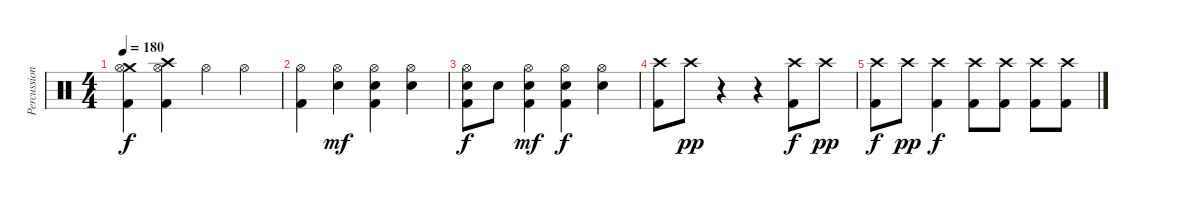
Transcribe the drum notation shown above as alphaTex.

\track ("Percussion" "Percussion") {instrument percussion}
\staff {score}
\articulation defaults
\ts (4 4)
\tempo 180
\clef neutral
\ks c
("Crash medium (hit)" "Hi-Hat (open)" "Kick (hit) 2").4{dy f} ("Crash high (hit)" "Hi-Hat (open)" "Kick (hit) 2").4 "Hi-Hat (open)".4 "Hi-Hat (open)".4 |
("Hi-Hat (open)" "Kick (hit) 2").4 ("Hi-Hat (open)" "Electric Snare (hit)").4{dy mf} ("Hi-Hat (open)" "Electric Snare (hit)" "Kick (hit) 2").4 ("Hi-Hat (open)" "Electric Snare (hit)").4 |
("Hi-Hat (open)" "Electric Snare (hit)" "Kick (hit) 2").8{dy f} "Electric Snare (hit)".8 ("Hi-Hat (open)" "Electric Snare (hit)" "Kick (hit) 2").4{dy mf} ("Hi-Hat (open)" "Electric Snare (hit)" "Kick (hit) 2").4{dy f} ("Hi-Hat (open)" "Electric Snare (hit)").4 |
("Crash high (hit)" "Kick (hit) 2").8 "Crash high (hit)".8{dy pp} r.4 r.4 ("Crash high (hit)" "Kick (hit) 2").8{dy f} "Crash high (hit)".8{dy pp} |
("Crash high (hit)" "Kick (hit) 2").8{dy f} "Crash high (hit)".8{dy pp} ("Crash high (hit)" "Kick (hit) 2").4{dy f} ("Crash high (hit)" "Kick (hit) 2").8 ("Crash high (hit)" "Kick (hit) 2").8 ("Crash high (hit)" "Kick (hit) 2").8 ("Crash high (hit)" "Kick (hit) 2").8
